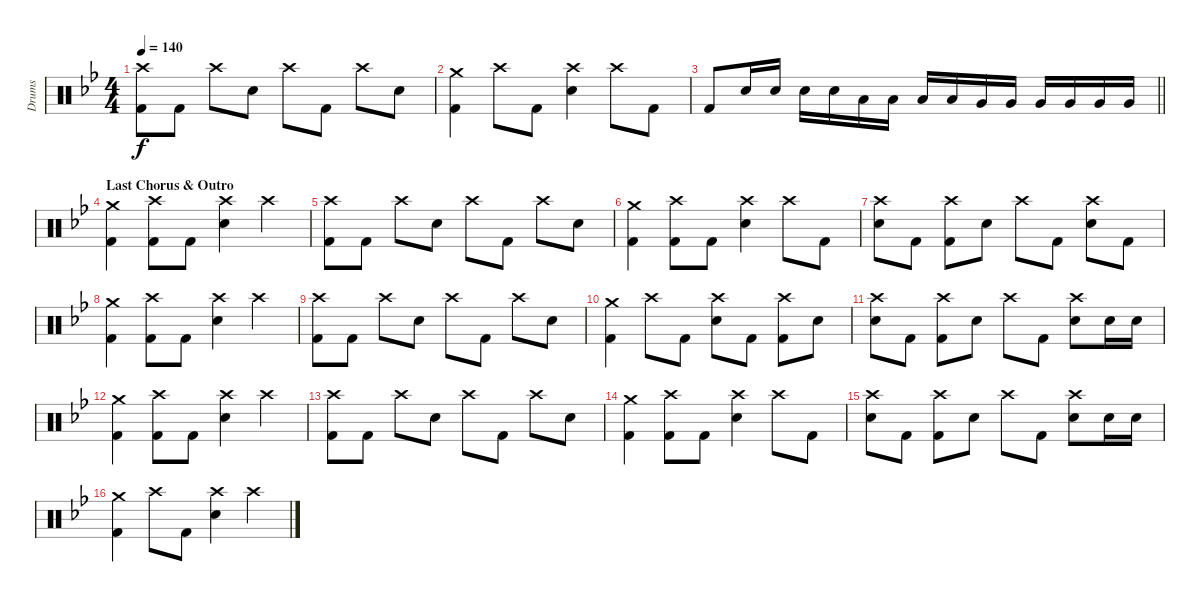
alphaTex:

\track ("Drums" "Drums") {instrument percussion}
\staff {score}
\articulation defaults
\ts (4 4)
\tempo 140
\clef neutral
\ks gminor
("Crash high (hit)" "Kick (hit) 2").8{dy f} "Kick (hit) 2".8 "Crash high (hit)".8 "Electric Snare (hit)".8 "Crash high (hit)".8 "Kick (hit) 2".8 "Crash high (hit)".8 "Electric Snare (hit)".8 |
("Crash medium (hit)" "Kick (hit) 2").4 "Crash high (hit)".8 "Kick (hit) 2".8 ("Crash high (hit)" "Electric Snare (hit)").4 "Crash high (hit)".8 "Kick (hit) 2".8 |
\barLineRight lightlight "Kick (hit) 2".8 "Electric Snare (hit)".16 "Electric Snare (hit)".16 "Electric Snare (hit)".16 "Electric Snare (hit)".16 "Low Tom (hit)".16 "Low Tom (hit)".16 "Low Tom (hit)".16 "Low Tom (hit)".16 "Very Low Tom (hit)".16 "Very Low Tom (hit)".16 "Very Low Tom (hit)".16 "Very Low Tom (hit)".16 "Very Low Tom (hit)".16 "Very Low Tom (hit)".16
|
\section ("" "Last Chorus & Outro")
("Crash medium (hit)" "Kick (hit) 2").4 ("Crash high (hit)" "Kick (hit) 2").8 "Kick (hit) 2".8 ("Crash high (hit)" "Electric Snare (hit)").4 "Crash high (hit)".4 |
("Crash high (hit)" "Kick (hit) 2").8 "Kick (hit) 2".8 "Crash high (hit)".8 "Electric Snare (hit)".8 "Crash high (hit)".8 "Kick (hit) 2".8 "Crash high (hit)".8 "Electric Snare (hit)".8 |
("Crash medium (hit)" "Kick (hit) 2").4 ("Crash high (hit)" "Kick (hit) 2").8 "Kick (hit) 2".8 ("Crash high (hit)" "Electric Snare (hit)").4 "Crash high (hit)".8 "Kick (hit) 2".8 |
("Crash high (hit)" "Electric Snare (hit)").8 "Kick (hit) 2".8 ("Crash high (hit)" "Kick (hit) 2").8 "Electric Snare (hit)".8 "Crash high (hit)".8 "Kick (hit) 2".8 ("Crash high (hit)" "Electric Snare (hit)").8 "Kick (hit) 2".8 |
("Crash medium (hit)" "Kick (hit) 2").4 ("Crash high (hit)" "Kick (hit) 2").8 "Kick (hit) 2".8 ("Crash high (hit)" "Electric Snare (hit)").4 "Crash high (hit)".4 |
("Crash high (hit)" "Kick (hit) 2").8 "Kick (hit) 2".8 "Crash high (hit)".8 "Electric Snare (hit)".8 "Crash high (hit)".8 "Kick (hit) 2".8 "Crash high (hit)".8 "Electric Snare (hit)".8 |
("Crash medium (hit)" "Kick (hit) 2").4 "Crash high (hit)".8 "Kick (hit) 2".8 ("Crash high (hit)" "Electric Snare (hit)").8 "Kick (hit) 2".8 ("Crash high (hit)" "Kick (hit) 2").8 "Electric Snare (hit)".8 |
("Crash high (hit)" "Electric Snare (hit)").8 "Kick (hit) 2".8 ("Crash high (hit)" "Kick (hit) 2").8 "Electric Snare (hit)".8 "Crash high (hit)".8 "Kick (hit) 2".8 ("Crash high (hit)" "Electric Snare (hit)").8 "Electric Snare (hit)".16 "Electric Snare (hit)".16 |
("Crash medium (hit)" "Kick (hit) 2").4 ("Crash high (hit)" "Kick (hit) 2").8 "Kick (hit) 2".8 ("Crash high (hit)" "Electric Snare (hit)").4 "Crash high (hit)".4 |
("Crash high (hit)" "Kick (hit) 2").8 "Kick (hit) 2".8 "Crash high (hit)".8 "Electric Snare (hit)".8 "Crash high (hit)".8 "Kick (hit) 2".8 "Crash high (hit)".8 "Electric Snare (hit)".8 |
("Crash medium (hit)" "Kick (hit) 2").4 ("Crash high (hit)" "Kick (hit) 2").8 "Kick (hit) 2".8 ("Crash high (hit)" "Electric Snare (hit)").4 "Crash high (hit)".8 "Kick (hit) 2".8 |
("Crash high (hit)" "Electric Snare (hit)").8 "Kick (hit) 2".8 ("Crash high (hit)" "Kick (hit) 2").8 "Electric Snare (hit)".8 "Crash high (hit)".8 "Kick (hit) 2".8 ("Crash high (hit)" "Electric Snare (hit)").8 "Electric Snare (hit)".16 "Electric Snare (hit)".16 |
("Crash medium (hit)" "Kick (hit) 2").4 "Crash high (hit)".8 "Kick (hit) 2".8 ("Crash high (hit)" "Electric Snare (hit)").4 "Crash high (hit)".4
